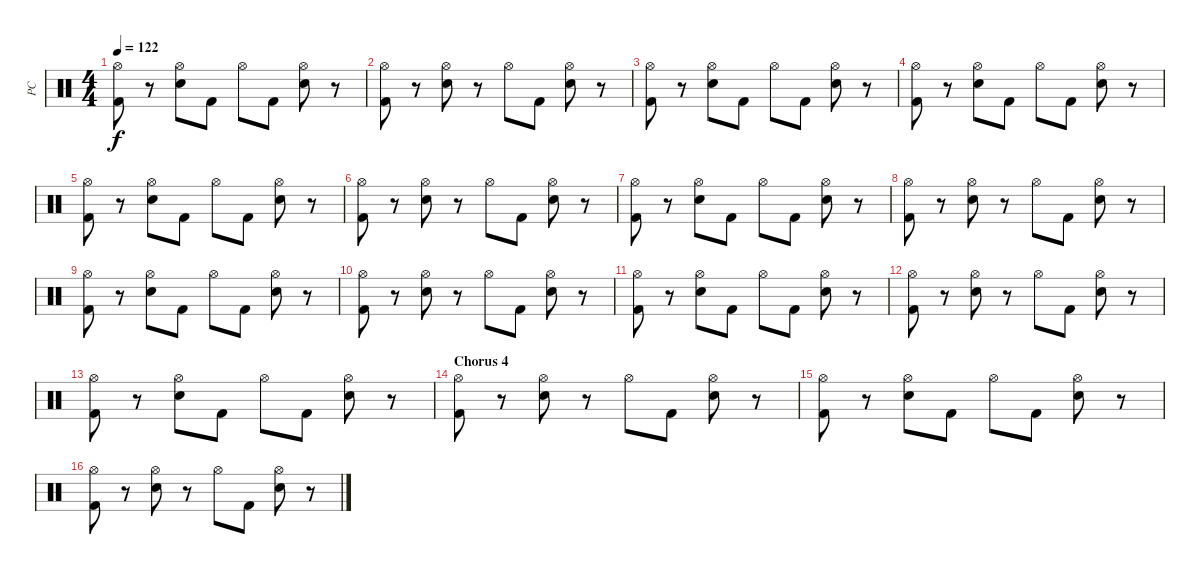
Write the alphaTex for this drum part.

\track ("PC" "PC") {instrument percussion}
\staff {score}
\articulation defaults
\ts (4 4)
\tempo 122
\clef neutral
\ks c
("Hi-Hat (open)" "Kick (hit) 2").8{dy f} r.8 ("Hi-Hat (open)" "Electric Snare (hit)").8 "Kick (hit) 2".8 "Hi-Hat (open)".8 "Kick (hit) 2".8 ("Hi-Hat (open)" "Electric Snare (hit)").8 r.8 |
("Hi-Hat (open)" "Kick (hit) 2").8 r.8 ("Hi-Hat (open)" "Electric Snare (hit)").8 r.8 "Hi-Hat (open)".8 "Kick (hit) 2".8 ("Hi-Hat (open)" "Electric Snare (hit)").8 r.8 |
("Hi-Hat (open)" "Kick (hit) 2").8 r.8 ("Hi-Hat (open)" "Electric Snare (hit)").8 "Kick (hit) 2".8 "Hi-Hat (open)".8 "Kick (hit) 2".8 ("Hi-Hat (open)" "Electric Snare (hit)").8 r.8 |
("Hi-Hat (open)" "Kick (hit) 2").8 r.8 ("Hi-Hat (open)" "Electric Snare (hit)").8 "Kick (hit) 2".8 "Hi-Hat (open)".8 "Kick (hit) 2".8 ("Hi-Hat (open)" "Electric Snare (hit)").8 r.8 |
("Hi-Hat (open)" "Kick (hit) 2").8 r.8 ("Hi-Hat (open)" "Electric Snare (hit)").8 "Kick (hit) 2".8 "Hi-Hat (open)".8 "Kick (hit) 2".8 ("Hi-Hat (open)" "Electric Snare (hit)").8 r.8 |
("Hi-Hat (open)" "Kick (hit) 2").8 r.8 ("Hi-Hat (open)" "Electric Snare (hit)").8 r.8 "Hi-Hat (open)".8 "Kick (hit) 2".8 ("Hi-Hat (open)" "Electric Snare (hit)").8 r.8 |
("Hi-Hat (open)" "Kick (hit) 2").8 r.8 ("Hi-Hat (open)" "Electric Snare (hit)").8 "Kick (hit) 2".8 "Hi-Hat (open)".8 "Kick (hit) 2".8 ("Hi-Hat (open)" "Electric Snare (hit)").8 r.8 |
("Hi-Hat (open)" "Kick (hit) 2").8 r.8 ("Hi-Hat (open)" "Electric Snare (hit)").8 r.8 "Hi-Hat (open)".8 "Kick (hit) 2".8 ("Hi-Hat (open)" "Electric Snare (hit)").8 r.8 |
("Hi-Hat (open)" "Kick (hit) 2").8 r.8 ("Hi-Hat (open)" "Electric Snare (hit)").8 "Kick (hit) 2".8 "Hi-Hat (open)".8 "Kick (hit) 2".8 ("Hi-Hat (open)" "Electric Snare (hit)").8 r.8 |
("Hi-Hat (open)" "Kick (hit) 2").8 r.8 ("Hi-Hat (open)" "Electric Snare (hit)").8 r.8 "Hi-Hat (open)".8 "Kick (hit) 2".8 ("Hi-Hat (open)" "Electric Snare (hit)").8 r.8 |
("Hi-Hat (open)" "Kick (hit) 2").8 r.8 ("Hi-Hat (open)" "Electric Snare (hit)").8 "Kick (hit) 2".8 "Hi-Hat (open)".8 "Kick (hit) 2".8 ("Hi-Hat (open)" "Electric Snare (hit)").8 r.8 |
("Hi-Hat (open)" "Kick (hit) 2").8 r.8 ("Hi-Hat (open)" "Electric Snare (hit)").8 r.8 "Hi-Hat (open)".8 "Kick (hit) 2".8 ("Hi-Hat (open)" "Electric Snare (hit)").8 r.8 |
("Hi-Hat (open)" "Kick (hit) 2").8 r.8 ("Hi-Hat (open)" "Electric Snare (hit)").8 "Kick (hit) 2".8 "Hi-Hat (open)".8 "Kick (hit) 2".8 ("Hi-Hat (open)" "Electric Snare (hit)").8 r.8 |
\section ("" "Chorus 4")
("Hi-Hat (open)" "Kick (hit) 2").8 r.8 ("Hi-Hat (open)" "Electric Snare (hit)").8 r.8 "Hi-Hat (open)".8 "Kick (hit) 2".8 ("Hi-Hat (open)" "Electric Snare (hit)").8 r.8 |
("Hi-Hat (open)" "Kick (hit) 2").8 r.8 ("Hi-Hat (open)" "Electric Snare (hit)").8 "Kick (hit) 2".8 "Hi-Hat (open)".8 "Kick (hit) 2".8 ("Hi-Hat (open)" "Electric Snare (hit)").8 r.8 |
("Hi-Hat (open)" "Kick (hit) 2").8 r.8 ("Hi-Hat (open)" "Electric Snare (hit)").8 r.8 "Hi-Hat (open)".8 "Kick (hit) 2".8 ("Hi-Hat (open)" "Electric Snare (hit)").8 r.8
